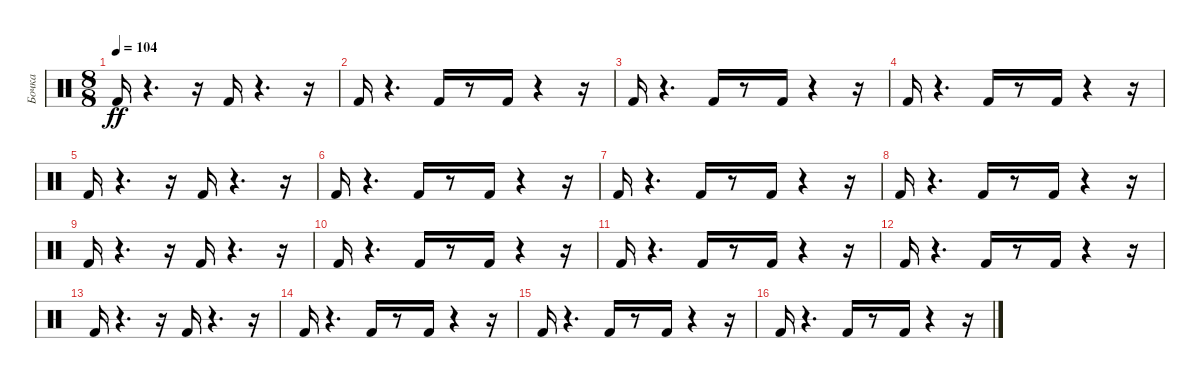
\track ("Бочка" "Бочка") {instrument percussion}
\staff {score}
\articulation defaults
\ts (8 8)
\tempo 104
\clef neutral
\ks c "Kick (hit) 2".16{dy ff}
r.4{d} r.16 "Kick (hit) 2".16 r.4{d} r.16 |
"Kick (hit) 2".16 r.4{d} "Kick (hit) 2".16 r.8 "Kick (hit) 2".16 r.4 r.16 |
"Kick (hit) 2".16 r.4{d} "Kick (hit) 2".16 r.8 "Kick (hit) 2".16 r.4 r.16 |
"Kick (hit) 2".16 r.4{d} "Kick (hit) 2".16 r.8 "Kick (hit) 2".16 r.4 r.16 |
"Kick (hit) 2".16 r.4{d} r.16 "Kick (hit) 2".16 r.4{d} r.16 |
"Kick (hit) 2".16 r.4{d} "Kick (hit) 2".16 r.8 "Kick (hit) 2".16 r.4 r.16 |
"Kick (hit) 2".16 r.4{d} "Kick (hit) 2".16 r.8 "Kick (hit) 2".16 r.4 r.16 |
"Kick (hit) 2".16 r.4{d} "Kick (hit) 2".16 r.8 "Kick (hit) 2".16 r.4 r.16 |
"Kick (hit) 2".16 r.4{d} r.16 "Kick (hit) 2".16 r.4{d} r.16 |
"Kick (hit) 2".16 r.4{d} "Kick (hit) 2".16 r.8 "Kick (hit) 2".16 r.4 r.16 |
"Kick (hit) 2".16 r.4{d} "Kick (hit) 2".16 r.8 "Kick (hit) 2".16 r.4 r.16 |
"Kick (hit) 2".16 r.4{d} "Kick (hit) 2".16 r.8 "Kick (hit) 2".16 r.4 r.16 |
"Kick (hit) 2".16 r.4{d} r.16 "Kick (hit) 2".16 r.4{d} r.16 |
"Kick (hit) 2".16 r.4{d} "Kick (hit) 2".16 r.8 "Kick (hit) 2".16 r.4 r.16 |
"Kick (hit) 2".16 r.4{d} "Kick (hit) 2".16 r.8 "Kick (hit) 2".16 r.4 r.16 |
"Kick (hit) 2".16 r.4{d} "Kick (hit) 2".16 r.8 "Kick (hit) 2".16 r.4 r.16
